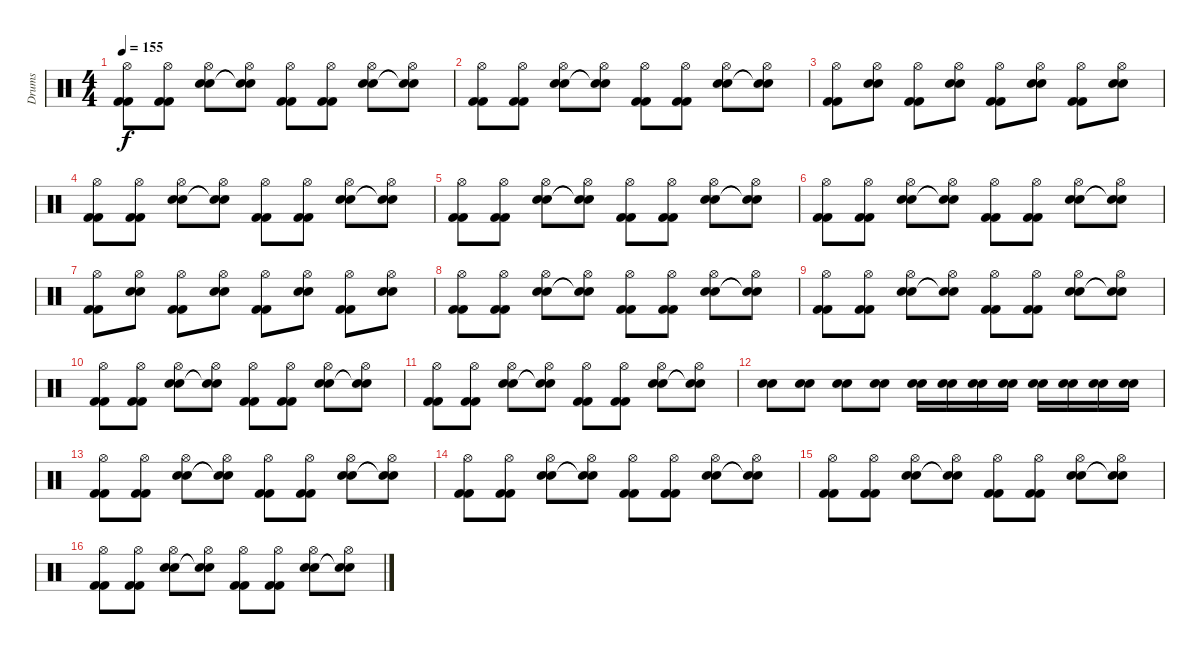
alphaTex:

\track ("Drums" "Drums") {instrument percussion}
\staff {score}
\articulation defaults
\ts (4 4)
\tempo 155
\clef neutral
\ks c
("Hi-Hat (open)" "Kick (hit) 2" "Kick (hit) 2").8{dy f} ("Hi-Hat (open)" "Kick (hit) 2" "Kick (hit) 2").8 ("Hi-Hat (open)" "Electric Snare (hit)" "Electric Snare (hit)").8 ("Hi-Hat (open)" "Snare (hit)"{t} "Snare (hit)"{t}).8 ("Hi-Hat (open)" "Kick (hit) 2" "Kick (hit) 2").8 ("Hi-Hat (open)" "Kick (hit) 2" "Kick (hit) 2").8 ("Hi-Hat (open)" "Electric Snare (hit)" "Electric Snare (hit)").8 ("Hi-Hat (open)" "Snare (hit)"{t} "Snare (hit)"{t}).8 |
("Hi-Hat (open)" "Kick (hit) 2" "Kick (hit) 2").8 ("Hi-Hat (open)" "Kick (hit) 2" "Kick (hit) 2").8 ("Hi-Hat (open)" "Electric Snare (hit)" "Electric Snare (hit)").8 ("Hi-Hat (open)" "Snare (hit)"{t} "Snare (hit)"{t}).8 ("Hi-Hat (open)" "Kick (hit) 2" "Kick (hit) 2").8 ("Hi-Hat (open)" "Kick (hit) 2" "Kick (hit) 2").8 ("Hi-Hat (open)" "Electric Snare (hit)" "Electric Snare (hit)").8 ("Hi-Hat (open)" "Snare (hit)"{t} "Snare (hit)"{t}).8 |
("Hi-Hat (open)" "Kick (hit) 2" "Kick (hit) 2").8 ("Hi-Hat (open)" "Electric Snare (hit)" "Electric Snare (hit)").8 ("Hi-Hat (open)" "Kick (hit) 2" "Kick (hit) 2").8 ("Hi-Hat (open)" "Electric Snare (hit)" "Electric Snare (hit)").8 ("Hi-Hat (open)" "Kick (hit) 2" "Kick (hit) 2").8 ("Hi-Hat (open)" "Electric Snare (hit)" "Electric Snare (hit)").8 ("Hi-Hat (open)" "Kick (hit) 2" "Kick (hit) 2").8 ("Hi-Hat (open)" "Electric Snare (hit)" "Electric Snare (hit)").8 |
("Hi-Hat (open)" "Kick (hit) 2" "Kick (hit) 2").8 ("Hi-Hat (open)" "Kick (hit) 2" "Kick (hit) 2").8 ("Hi-Hat (open)" "Electric Snare (hit)" "Electric Snare (hit)").8 ("Hi-Hat (open)" "Snare (hit)"{t} "Snare (hit)"{t}).8 ("Hi-Hat (open)" "Kick (hit) 2" "Kick (hit) 2").8 ("Hi-Hat (open)" "Kick (hit) 2" "Kick (hit) 2").8 ("Hi-Hat (open)" "Electric Snare (hit)" "Electric Snare (hit)").8 ("Hi-Hat (open)" "Snare (hit)"{t} "Snare (hit)"{t}).8 |
("Hi-Hat (open)" "Kick (hit) 2" "Kick (hit) 2").8 ("Hi-Hat (open)" "Kick (hit) 2" "Kick (hit) 2").8 ("Hi-Hat (open)" "Electric Snare (hit)" "Electric Snare (hit)").8 ("Hi-Hat (open)" "Snare (hit)"{t} "Snare (hit)"{t}).8 ("Hi-Hat (open)" "Kick (hit) 2" "Kick (hit) 2").8 ("Hi-Hat (open)" "Kick (hit) 2" "Kick (hit) 2").8 ("Hi-Hat (open)" "Electric Snare (hit)" "Electric Snare (hit)").8 ("Hi-Hat (open)" "Snare (hit)"{t} "Snare (hit)"{t}).8 |
("Hi-Hat (open)" "Kick (hit) 2" "Kick (hit) 2").8 ("Hi-Hat (open)" "Kick (hit) 2" "Kick (hit) 2").8 ("Hi-Hat (open)" "Electric Snare (hit)" "Electric Snare (hit)").8 ("Hi-Hat (open)" "Snare (hit)"{t} "Snare (hit)"{t}).8 ("Hi-Hat (open)" "Kick (hit) 2" "Kick (hit) 2").8 ("Hi-Hat (open)" "Kick (hit) 2" "Kick (hit) 2").8 ("Hi-Hat (open)" "Electric Snare (hit)" "Electric Snare (hit)").8 ("Hi-Hat (open)" "Snare (hit)"{t} "Snare (hit)"{t}).8 |
("Hi-Hat (open)" "Kick (hit) 2" "Kick (hit) 2").8 ("Hi-Hat (open)" "Electric Snare (hit)" "Electric Snare (hit)").8 ("Hi-Hat (open)" "Kick (hit) 2" "Kick (hit) 2").8 ("Hi-Hat (open)" "Electric Snare (hit)" "Electric Snare (hit)").8 ("Hi-Hat (open)" "Kick (hit) 2" "Kick (hit) 2").8 ("Hi-Hat (open)" "Electric Snare (hit)" "Electric Snare (hit)").8 ("Hi-Hat (open)" "Kick (hit) 2" "Kick (hit) 2").8 ("Hi-Hat (open)" "Electric Snare (hit)" "Electric Snare (hit)").8 |
("Hi-Hat (open)" "Kick (hit) 2" "Kick (hit) 2").8 ("Hi-Hat (open)" "Kick (hit) 2" "Kick (hit) 2").8 ("Hi-Hat (open)" "Electric Snare (hit)" "Electric Snare (hit)").8 ("Hi-Hat (open)" "Snare (hit)"{t} "Snare (hit)"{t}).8 ("Hi-Hat (open)" "Kick (hit) 2" "Kick (hit) 2").8 ("Hi-Hat (open)" "Kick (hit) 2" "Kick (hit) 2").8 ("Hi-Hat (open)" "Electric Snare (hit)" "Electric Snare (hit)").8 ("Hi-Hat (open)" "Snare (hit)"{t} "Snare (hit)"{t}).8 |
("Hi-Hat (open)" "Kick (hit) 2" "Kick (hit) 2").8 ("Hi-Hat (open)" "Kick (hit) 2" "Kick (hit) 2").8 ("Hi-Hat (open)" "Electric Snare (hit)" "Electric Snare (hit)").8 ("Hi-Hat (open)" "Snare (hit)"{t} "Snare (hit)"{t}).8 ("Hi-Hat (open)" "Kick (hit) 2" "Kick (hit) 2").8 ("Hi-Hat (open)" "Kick (hit) 2" "Kick (hit) 2").8 ("Hi-Hat (open)" "Electric Snare (hit)" "Electric Snare (hit)").8 ("Hi-Hat (open)" "Snare (hit)"{t} "Snare (hit)"{t}).8 |
("Hi-Hat (open)" "Kick (hit) 2" "Kick (hit) 2").8 ("Hi-Hat (open)" "Kick (hit) 2" "Kick (hit) 2").8 ("Hi-Hat (open)" "Electric Snare (hit)" "Electric Snare (hit)").8 ("Hi-Hat (open)" "Snare (hit)"{t} "Snare (hit)"{t}).8 ("Hi-Hat (open)" "Kick (hit) 2" "Kick (hit) 2").8 ("Hi-Hat (open)" "Kick (hit) 2" "Kick (hit) 2").8 ("Hi-Hat (open)" "Electric Snare (hit)" "Electric Snare (hit)").8 ("Hi-Hat (open)" "Snare (hit)"{t} "Snare (hit)"{t}).8 |
("Hi-Hat (open)" "Kick (hit) 2" "Kick (hit) 2").8 ("Hi-Hat (open)" "Kick (hit) 2" "Kick (hit) 2").8 ("Hi-Hat (open)" "Electric Snare (hit)" "Electric Snare (hit)").8 ("Hi-Hat (open)" "Snare (hit)"{t} "Snare (hit)"{t}).8 ("Hi-Hat (open)" "Kick (hit) 2" "Kick (hit) 2").8 ("Hi-Hat (open)" "Kick (hit) 2" "Kick (hit) 2").8 ("Hi-Hat (open)" "Electric Snare (hit)" "Electric Snare (hit)").8 ("Hi-Hat (open)" "Snare (hit)"{t} "Snare (hit)"{t}).8 |
("Electric Snare (hit)" "Electric Snare (hit)").8 ("Electric Snare (hit)" "Electric Snare (hit)").8 ("Electric Snare (hit)" "Electric Snare (hit)").8 ("Electric Snare (hit)" "Electric Snare (hit)").8 ("Electric Snare (hit)" "Electric Snare (hit)").16 ("Electric Snare (hit)" "Electric Snare (hit)").16 ("Electric Snare (hit)" "Electric Snare (hit)").16 ("Electric Snare (hit)" "Electric Snare (hit)").16 ("Electric Snare (hit)" "Electric Snare (hit)").16 ("Electric Snare (hit)" "Electric Snare (hit)").16 ("Electric Snare (hit)" "Electric Snare (hit)").16 ("Electric Snare (hit)" "Electric Snare (hit)").16 |
("Hi-Hat (open)" "Kick (hit) 2" "Kick (hit) 2").8 ("Hi-Hat (open)" "Kick (hit) 2" "Kick (hit) 2").8 ("Hi-Hat (open)" "Electric Snare (hit)" "Electric Snare (hit)").8 ("Hi-Hat (open)" "Snare (hit)"{t} "Snare (hit)"{t}).8 ("Hi-Hat (open)" "Kick (hit) 2" "Kick (hit) 2").8 ("Hi-Hat (open)" "Kick (hit) 2" "Kick (hit) 2").8 ("Hi-Hat (open)" "Electric Snare (hit)" "Electric Snare (hit)").8 ("Hi-Hat (open)" "Snare (hit)"{t} "Snare (hit)"{t}).8 |
("Hi-Hat (open)" "Kick (hit) 2" "Kick (hit) 2").8 ("Hi-Hat (open)" "Kick (hit) 2" "Kick (hit) 2").8 ("Hi-Hat (open)" "Electric Snare (hit)" "Electric Snare (hit)").8 ("Hi-Hat (open)" "Snare (hit)"{t} "Snare (hit)"{t}).8 ("Hi-Hat (open)" "Kick (hit) 2" "Kick (hit) 2").8 ("Hi-Hat (open)" "Kick (hit) 2" "Kick (hit) 2").8 ("Hi-Hat (open)" "Electric Snare (hit)" "Electric Snare (hit)").8 ("Hi-Hat (open)" "Snare (hit)"{t} "Snare (hit)"{t}).8 |
("Hi-Hat (open)" "Kick (hit) 2" "Kick (hit) 2").8 ("Hi-Hat (open)" "Kick (hit) 2" "Kick (hit) 2").8 ("Hi-Hat (open)" "Electric Snare (hit)" "Electric Snare (hit)").8 ("Hi-Hat (open)" "Snare (hit)"{t} "Snare (hit)"{t}).8 ("Hi-Hat (open)" "Kick (hit) 2" "Kick (hit) 2").8 ("Hi-Hat (open)" "Kick (hit) 2" "Kick (hit) 2").8 ("Hi-Hat (open)" "Electric Snare (hit)" "Electric Snare (hit)").8 ("Hi-Hat (open)" "Snare (hit)"{t} "Snare (hit)"{t}).8 |
("Hi-Hat (open)" "Kick (hit) 2" "Kick (hit) 2").8 ("Hi-Hat (open)" "Kick (hit) 2" "Kick (hit) 2").8 ("Hi-Hat (open)" "Electric Snare (hit)" "Electric Snare (hit)").8 ("Hi-Hat (open)" "Snare (hit)"{t} "Snare (hit)"{t}).8 ("Hi-Hat (open)" "Kick (hit) 2" "Kick (hit) 2").8 ("Hi-Hat (open)" "Kick (hit) 2" "Kick (hit) 2").8 ("Hi-Hat (open)" "Electric Snare (hit)" "Electric Snare (hit)").8 ("Hi-Hat (open)" "Snare (hit)"{t} "Snare (hit)"{t}).8
